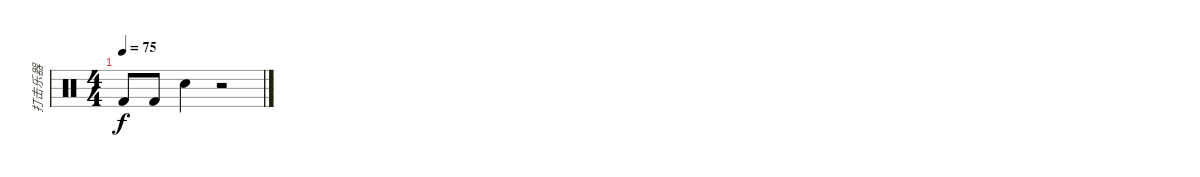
\track ("打击乐器" "打击乐器") {instrument percussion}
\staff {score}
\articulation defaults
\ts (4 4)
\tempo 75
\clef neutral
\ks c "Kick (hit) 2".8{dy f} "Kick (hit) 2".8 "Snare (hit) 2".4
r.2
